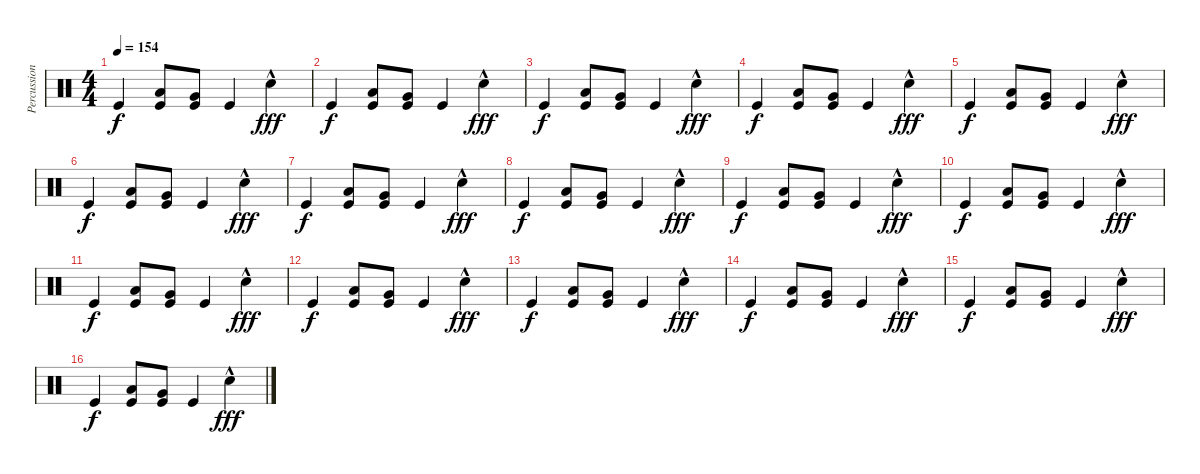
\track ("Percussion" "Percussion") {instrument percussion}
\staff {score}
\articulation defaults
\ts (4 4)
\tempo 154
\clef neutral
\ks c "Kick (hit)".4{dy f}
("Kick (hit)" "Low Tom (hit)").8 ("Kick (hit)" "Very Low Tom (hit)").8 "Kick (hit)".4 "Electric Snare (hit)"{hac}.4{dy fff} |
"Kick (hit)".4{dy f} ("Kick (hit)" "Low Tom (hit)").8 ("Kick (hit)" "Very Low Tom (hit)").8 "Kick (hit)".4 "Electric Snare (hit)"{hac}.4{dy fff} |
"Kick (hit)".4{dy f} ("Kick (hit)" "Low Tom (hit)").8 ("Kick (hit)" "Very Low Tom (hit)").8 "Kick (hit)".4 "Electric Snare (hit)"{hac}.4{dy fff} |
"Kick (hit)".4{dy f} ("Kick (hit)" "Low Tom (hit)").8 ("Kick (hit)" "Very Low Tom (hit)").8 "Kick (hit)".4 "Electric Snare (hit)"{hac}.4{dy fff} |
"Kick (hit)".4{dy f} ("Kick (hit)" "Low Tom (hit)").8 ("Kick (hit)" "Very Low Tom (hit)").8 "Kick (hit)".4 "Electric Snare (hit)"{hac}.4{dy fff} |
"Kick (hit)".4{dy f} ("Kick (hit)" "Low Tom (hit)").8 ("Kick (hit)" "Very Low Tom (hit)").8 "Kick (hit)".4 "Electric Snare (hit)"{hac}.4{dy fff} |
"Kick (hit)".4{dy f} ("Kick (hit)" "Low Tom (hit)").8 ("Kick (hit)" "Very Low Tom (hit)").8 "Kick (hit)".4 "Electric Snare (hit)"{hac}.4{dy fff} |
"Kick (hit)".4{dy f} ("Kick (hit)" "Low Tom (hit)").8 ("Kick (hit)" "Very Low Tom (hit)").8 "Kick (hit)".4 "Electric Snare (hit)"{hac}.4{dy fff} |
"Kick (hit)".4{dy f} ("Kick (hit)" "Low Tom (hit)").8 ("Kick (hit)" "Very Low Tom (hit)").8 "Kick (hit)".4 "Electric Snare (hit)"{hac}.4{dy fff} |
"Kick (hit)".4{dy f} ("Kick (hit)" "Low Tom (hit)").8 ("Kick (hit)" "Very Low Tom (hit)").8 "Kick (hit)".4 "Electric Snare (hit)"{hac}.4{dy fff} |
"Kick (hit)".4{dy f} ("Kick (hit)" "Low Tom (hit)").8 ("Kick (hit)" "Very Low Tom (hit)").8 "Kick (hit)".4 "Electric Snare (hit)"{hac}.4{dy fff} |
"Kick (hit)".4{dy f} ("Kick (hit)" "Low Tom (hit)").8 ("Kick (hit)" "Very Low Tom (hit)").8 "Kick (hit)".4 "Electric Snare (hit)"{hac}.4{dy fff} |
"Kick (hit)".4{dy f} ("Kick (hit)" "Low Tom (hit)").8 ("Kick (hit)" "Very Low Tom (hit)").8 "Kick (hit)".4 "Electric Snare (hit)"{hac}.4{dy fff} |
"Kick (hit)".4{dy f} ("Kick (hit)" "Low Tom (hit)").8 ("Kick (hit)" "Very Low Tom (hit)").8 "Kick (hit)".4 "Electric Snare (hit)"{hac}.4{dy fff} |
"Kick (hit)".4{dy f} ("Kick (hit)" "Low Tom (hit)").8 ("Kick (hit)" "Very Low Tom (hit)").8 "Kick (hit)".4 "Electric Snare (hit)"{hac}.4{dy fff} |
"Kick (hit)".4{dy f} ("Kick (hit)" "Low Tom (hit)").8 ("Kick (hit)" "Very Low Tom (hit)").8 "Kick (hit)".4 "Electric Snare (hit)"{hac}.4{dy fff}
